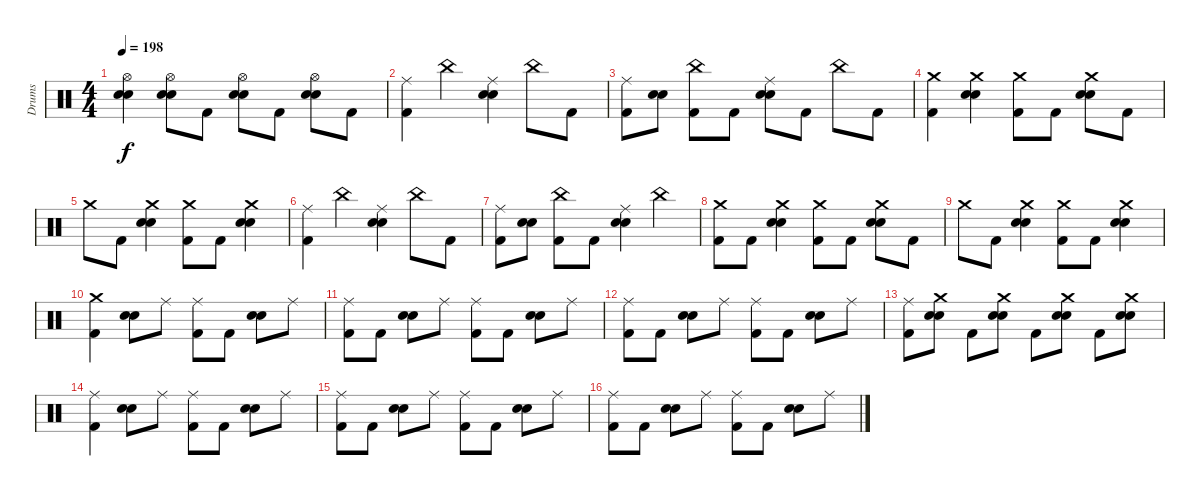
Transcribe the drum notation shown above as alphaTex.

\track ("Drums" "Drums") {instrument percussion}
\staff {score}
\articulation defaults
\ts (4 4)
\tempo 198
\clef neutral
\ks c
("Hi-Hat (open)" "Electric Snare (hit)" "Snare (hit) 2").4{dy f} ("Hi-Hat (open)" "Electric Snare (hit)" "Snare (hit) 2").8 "Kick (hit) 2".8 ("Hi-Hat (open)" "Electric Snare (hit)" "Snare (hit) 2").8 "Kick (hit) 2".8 ("Hi-Hat (open)" "Electric Snare (hit)" "Snare (hit) 2").8 "Kick (hit) 2".8 |
("Ride (middle)" "Kick (hit) 2").4 "China (hit)".4 ("Ride (middle)" "Electric Snare (hit)" "Snare (hit) 2").4 "China (hit)".8 "Kick (hit) 2".8 |
("Ride (middle)" "Kick (hit) 2").8 ("Electric Snare (hit)" "Snare (hit) 2").8 ("China (hit)" "Kick (hit) 2").8 "Kick (hit) 2".8 ("Ride (middle)" "Electric Snare (hit)" "Snare (hit) 2").8 "Kick (hit) 2".8 "China (hit)".8 "Kick (hit) 2".8 |
("Crash medium (hit)" "Kick (hit) 2").4 ("Crash medium (hit)" "Electric Snare (hit)" "Snare (hit) 2").4 ("Crash medium (hit)" "Kick (hit) 2").8 "Kick (hit) 2".8 ("Crash medium (hit)" "Electric Snare (hit)" "Snare (hit) 2").8 "Kick (hit) 2".8 |
"Crash medium (hit)".8 "Kick (hit) 2".8 ("Crash medium (hit)" "Electric Snare (hit)" "Snare (hit) 2").4 ("Crash medium (hit)" "Kick (hit) 2").8 "Kick (hit) 2".8 ("Crash medium (hit)" "Electric Snare (hit)" "Snare (hit) 2").4 |
("Ride (middle)" "Kick (hit) 2").4 "China (hit)".4 ("Ride (middle)" "Electric Snare (hit)" "Snare (hit) 2").4 "China (hit)".8 "Kick (hit) 2".8 |
("Ride (middle)" "Kick (hit) 2").8 ("Electric Snare (hit)" "Snare (hit) 2").8 ("China (hit)" "Kick (hit) 2").8 "Kick (hit) 2".8 ("Ride (middle)" "Electric Snare (hit)" "Snare (hit) 2").4 "China (hit)".4 |
("Crash medium (hit)" "Kick (hit) 2").8 "Kick (hit) 2".8 ("Crash medium (hit)" "Electric Snare (hit)" "Snare (hit) 2").4 ("Crash medium (hit)" "Kick (hit) 2").8 "Kick (hit) 2".8 ("Crash medium (hit)" "Electric Snare (hit)" "Snare (hit) 2").8 "Kick (hit) 2".8 |
"Crash medium (hit)".8 "Kick (hit) 2".8 ("Crash medium (hit)" "Electric Snare (hit)" "Snare (hit) 2").4 ("Crash medium (hit)" "Kick (hit) 2").8 "Kick (hit) 2".8 ("Crash medium (hit)" "Electric Snare (hit)" "Snare (hit) 2").4 |
("Crash medium (hit)" "Kick (hit) 2").4 ("Electric Snare (hit)" "Snare (hit) 2").8 "Ride (middle)".8 ("Ride (middle)" "Kick (hit) 2").8 "Kick (hit) 2".8 ("Electric Snare (hit)" "Snare (hit) 2").8 "Ride (middle)".8 |
("Ride (middle)" "Kick (hit) 2").8 "Kick (hit) 2".8 ("Electric Snare (hit)" "Snare (hit) 2").8 "Ride (middle)".8 ("Ride (middle)" "Kick (hit) 2").8 "Kick (hit) 2".8 ("Electric Snare (hit)" "Snare (hit) 2").8 "Ride (middle)".8 |
("Ride (middle)" "Kick (hit) 2").8 "Kick (hit) 2".8 ("Electric Snare (hit)" "Snare (hit) 2").8 "Ride (middle)".8 ("Ride (middle)" "Kick (hit) 2").8 "Kick (hit) 2".8 ("Electric Snare (hit)" "Snare (hit) 2").8 "Ride (middle)".8 |
("Ride (middle)" "Kick (hit) 2").8 ("Crash medium (hit)" "Electric Snare (hit)" "Snare (hit) 2").8 "Kick (hit) 2".8 ("Crash medium (hit)" "Electric Snare (hit)" "Snare (hit) 2").8 "Kick (hit) 2".8 ("Crash medium (hit)" "Electric Snare (hit)" "Snare (hit) 2").8 "Kick (hit) 2".8 ("Crash medium (hit)" "Electric Snare (hit)" "Snare (hit) 2").8 |
("Ride (middle)" "Kick (hit) 2").4 ("Electric Snare (hit)" "Snare (hit) 2").8 "Ride (middle)".8 ("Ride (middle)" "Kick (hit) 2").8 "Kick (hit) 2".8 ("Electric Snare (hit)" "Snare (hit) 2").8 "Ride (middle)".8 |
("Ride (middle)" "Kick (hit) 2").8 "Kick (hit) 2".8 ("Electric Snare (hit)" "Snare (hit) 2").8 "Ride (middle)".8 ("Ride (middle)" "Kick (hit) 2").8 "Kick (hit) 2".8 ("Electric Snare (hit)" "Snare (hit) 2").8 "Ride (middle)".8 |
("Ride (middle)" "Kick (hit) 2").8 "Kick (hit) 2".8 ("Electric Snare (hit)" "Snare (hit) 2").8 "Ride (middle)".8 ("Ride (middle)" "Kick (hit) 2").8 "Kick (hit) 2".8 ("Electric Snare (hit)" "Snare (hit) 2").8 "Ride (middle)".8
